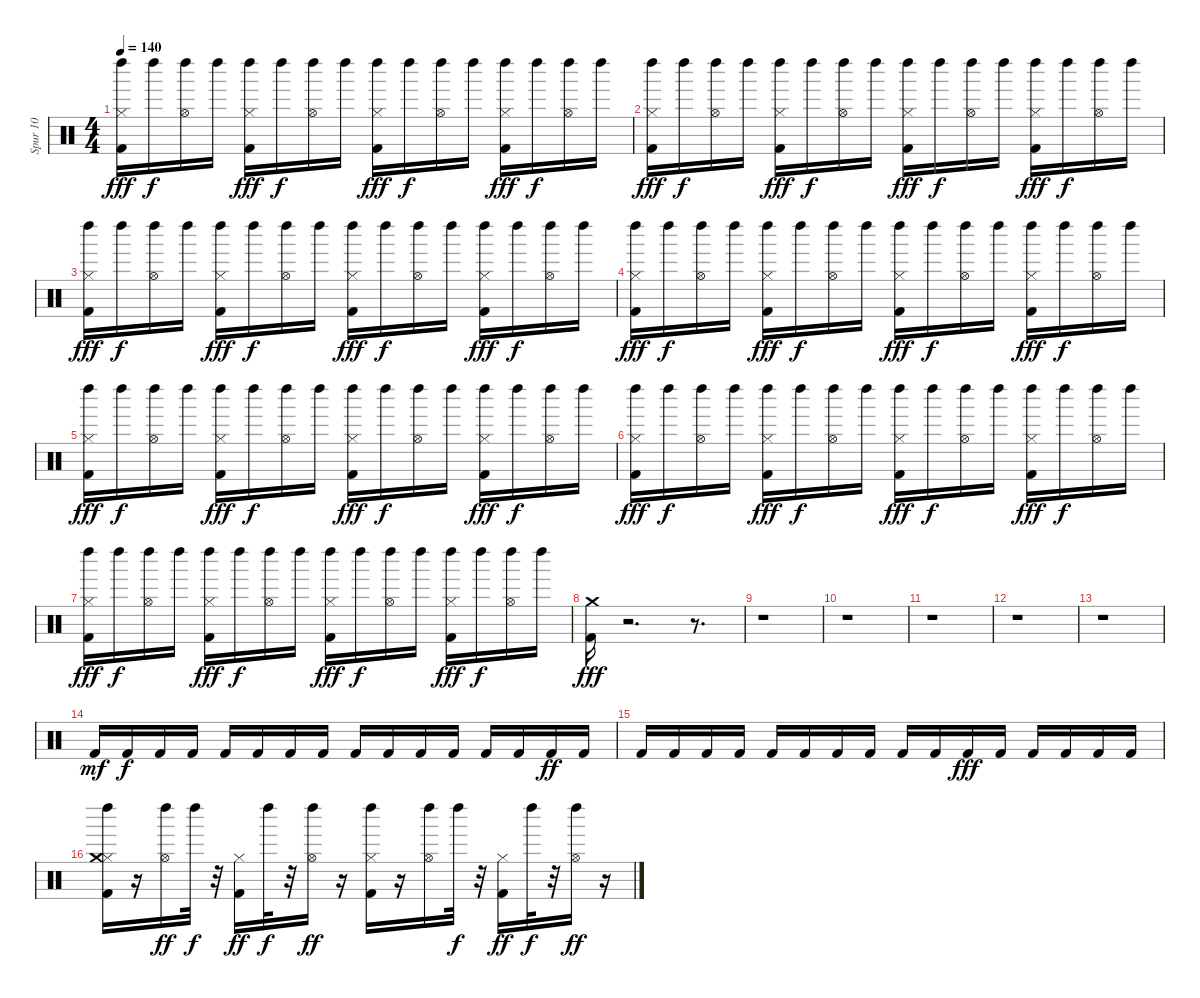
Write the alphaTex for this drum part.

\track ("Spur 10" "Spur 10") {instrument percussion}
\staff {score}
\articulation defaults
\ts (4 4)
\tempo 140
\clef neutral
\ks c
("Kick (hit) 2" "Hi-Hat (closed)" "Left Maraca (hit)").16{dy fff} "Left Maraca (hit)".16{dy f} ("Hi-Hat (open)" "Left Maraca (hit)").16 "Left Maraca (hit)".16 ("Kick (hit) 2" "Hi-Hat (closed)" "Left Maraca (hit)").16{dy fff} "Left Maraca (hit)".16{dy f} ("Hi-Hat (open)" "Left Maraca (hit)").16 "Left Maraca (hit)".16 ("Kick (hit) 2" "Hi-Hat (closed)" "Left Maraca (hit)").16{dy fff} "Left Maraca (hit)".16{dy f} ("Hi-Hat (open)" "Left Maraca (hit)").16 "Left Maraca (hit)".16 ("Kick (hit) 2" "Hi-Hat (closed)" "Left Maraca (hit)").16{dy fff} "Left Maraca (hit)".16{dy f} ("Hi-Hat (open)" "Left Maraca (hit)").16 "Left Maraca (hit)".16 |
("Kick (hit) 2" "Hi-Hat (closed)" "Left Maraca (hit)").16{dy fff} "Left Maraca (hit)".16{dy f} ("Hi-Hat (open)" "Left Maraca (hit)").16 "Left Maraca (hit)".16 ("Kick (hit) 2" "Hi-Hat (closed)" "Left Maraca (hit)").16{dy fff} "Left Maraca (hit)".16{dy f} ("Hi-Hat (open)" "Left Maraca (hit)").16 "Left Maraca (hit)".16 ("Kick (hit) 2" "Hi-Hat (closed)" "Left Maraca (hit)").16{dy fff} "Left Maraca (hit)".16{dy f} ("Hi-Hat (open)" "Left Maraca (hit)").16 "Left Maraca (hit)".16 ("Kick (hit) 2" "Hi-Hat (closed)" "Left Maraca (hit)").16{dy fff} "Left Maraca (hit)".16{dy f} ("Hi-Hat (open)" "Left Maraca (hit)").16 "Left Maraca (hit)".16 |
("Kick (hit) 2" "Hi-Hat (closed)" "Left Maraca (hit)").16{dy fff} "Left Maraca (hit)".16{dy f} ("Hi-Hat (open)" "Left Maraca (hit)").16 "Left Maraca (hit)".16 ("Kick (hit) 2" "Hi-Hat (closed)" "Left Maraca (hit)").16{dy fff} "Left Maraca (hit)".16{dy f} ("Hi-Hat (open)" "Left Maraca (hit)").16 "Left Maraca (hit)".16 ("Kick (hit) 2" "Hi-Hat (closed)" "Left Maraca (hit)").16{dy fff} "Left Maraca (hit)".16{dy f} ("Hi-Hat (open)" "Left Maraca (hit)").16 "Left Maraca (hit)".16 ("Kick (hit) 2" "Hi-Hat (closed)" "Left Maraca (hit)").16{dy fff} "Left Maraca (hit)".16{dy f} ("Hi-Hat (open)" "Left Maraca (hit)").16 "Left Maraca (hit)".16 |
("Kick (hit) 2" "Hi-Hat (closed)" "Left Maraca (hit)").16{dy fff} "Left Maraca (hit)".16{dy f} ("Hi-Hat (open)" "Left Maraca (hit)").16 "Left Maraca (hit)".16 ("Kick (hit) 2" "Hi-Hat (closed)" "Left Maraca (hit)").16{dy fff} "Left Maraca (hit)".16{dy f} ("Hi-Hat (open)" "Left Maraca (hit)").16 "Left Maraca (hit)".16 ("Kick (hit) 2" "Hi-Hat (closed)" "Left Maraca (hit)").16{dy fff} "Left Maraca (hit)".16{dy f} ("Hi-Hat (open)" "Left Maraca (hit)").16 "Left Maraca (hit)".16 ("Kick (hit) 2" "Hi-Hat (closed)" "Left Maraca (hit)").16{dy fff} "Left Maraca (hit)".16{dy f} ("Hi-Hat (open)" "Left Maraca (hit)").16 "Left Maraca (hit)".16 |
("Kick (hit) 2" "Hi-Hat (closed)" "Left Maraca (hit)").16{dy fff} "Left Maraca (hit)".16{dy f} ("Hi-Hat (open)" "Left Maraca (hit)").16 "Left Maraca (hit)".16 ("Kick (hit) 2" "Hi-Hat (closed)" "Left Maraca (hit)").16{dy fff} "Left Maraca (hit)".16{dy f} ("Hi-Hat (open)" "Left Maraca (hit)").16 "Left Maraca (hit)".16 ("Kick (hit) 2" "Hi-Hat (closed)" "Left Maraca (hit)").16{dy fff} "Left Maraca (hit)".16{dy f} ("Hi-Hat (open)" "Left Maraca (hit)").16 "Left Maraca (hit)".16 ("Kick (hit) 2" "Hi-Hat (closed)" "Left Maraca (hit)").16{dy fff} "Left Maraca (hit)".16{dy f} ("Hi-Hat (open)" "Left Maraca (hit)").16 "Left Maraca (hit)".16 |
("Kick (hit) 2" "Hi-Hat (closed)" "Left Maraca (hit)").16{dy fff} "Left Maraca (hit)".16{dy f} ("Hi-Hat (open)" "Left Maraca (hit)").16 "Left Maraca (hit)".16 ("Kick (hit) 2" "Hi-Hat (closed)" "Left Maraca (hit)").16{dy fff} "Left Maraca (hit)".16{dy f} ("Hi-Hat (open)" "Left Maraca (hit)").16 "Left Maraca (hit)".16 ("Kick (hit) 2" "Hi-Hat (closed)" "Left Maraca (hit)").16{dy fff} "Left Maraca (hit)".16{dy f} ("Hi-Hat (open)" "Left Maraca (hit)").16 "Left Maraca (hit)".16 ("Kick (hit) 2" "Hi-Hat (closed)" "Left Maraca (hit)").16{dy fff} "Left Maraca (hit)".16{dy f} ("Hi-Hat (open)" "Left Maraca (hit)").16 "Left Maraca (hit)".16 |
("Kick (hit) 2" "Hi-Hat (closed)" "Left Maraca (hit)").16{dy fff} "Left Maraca (hit)".16{dy f} ("Hi-Hat (open)" "Left Maraca (hit)").16 "Left Maraca (hit)".16 ("Kick (hit) 2" "Hi-Hat (closed)" "Left Maraca (hit)").16{dy fff} "Left Maraca (hit)".16{dy f} ("Hi-Hat (open)" "Left Maraca (hit)").16 "Left Maraca (hit)".16 ("Kick (hit) 2" "Hi-Hat (closed)" "Left Maraca (hit)").16{dy fff} "Left Maraca (hit)".16{dy f} ("Hi-Hat (open)" "Left Maraca (hit)").16 "Left Maraca (hit)".16 ("Kick (hit) 2" "Hi-Hat (closed)" "Left Maraca (hit)").16{dy fff} "Left Maraca (hit)".16{dy f} ("Hi-Hat (open)" "Left Maraca (hit)").16 "Left Maraca (hit)".16 |
("Kick (hit) 2" "Crash medium (hit)").16{dy fff} r.2{d} r.8{d} |
r.1 |
r.1 |
r.1 |
r.1 |
r.1 |
"Kick (hit) 2".16{dy mf} "Kick (hit) 2".16{dy f} "Kick (hit) 2".16 "Kick (hit) 2".16 "Kick (hit) 2".16 "Kick (hit) 2".16 "Kick (hit) 2".16 "Kick (hit) 2".16 "Kick (hit) 2".16 "Kick (hit) 2".16 "Kick (hit) 2".16 "Kick (hit) 2".16 "Kick (hit) 2".16 "Kick (hit) 2".16 "Kick (hit) 2".16{dy ff} "Kick (hit) 2".16 |
"Kick (hit) 2".16 "Kick (hit) 2".16 "Kick (hit) 2".16 "Kick (hit) 2".16 "Kick (hit) 2".16 "Kick (hit) 2".16 "Kick (hit) 2".16 "Kick (hit) 2".16 "Kick (hit) 2".16 "Kick (hit) 2".16 "Kick (hit) 2".16{dy fff} "Kick (hit) 2".16 "Kick (hit) 2".16 "Kick (hit) 2".16 "Kick (hit) 2".16 "Kick (hit) 2".16 |
("Kick (hit) 2" "Hi-Hat (closed)" "Crash medium (hit)" "Left Maraca (hit)").16 r.16 ("Hi-Hat (open)" "Left Maraca (hit)").16{dy ff} "Left Maraca (hit)".32{dy f} r.32 ("Kick (hit) 2" "Hi-Hat (closed)").16{dy ff} "Left Maraca (hit)".32{dy f} r.32 ("Hi-Hat (open)" "Left Maraca (hit)").16{dy ff} r.16 ("Kick (hit) 2" "Hi-Hat (closed)" "Left Maraca (hit)").16 r.16 ("Hi-Hat (open)" "Left Maraca (hit)").16 "Left Maraca (hit)".32{dy f} r.32 ("Kick (hit) 2" "Hi-Hat (closed)").16{dy ff} "Left Maraca (hit)".32{dy f} r.32 ("Hi-Hat (open)" "Left Maraca (hit)").16{dy ff} r.16
